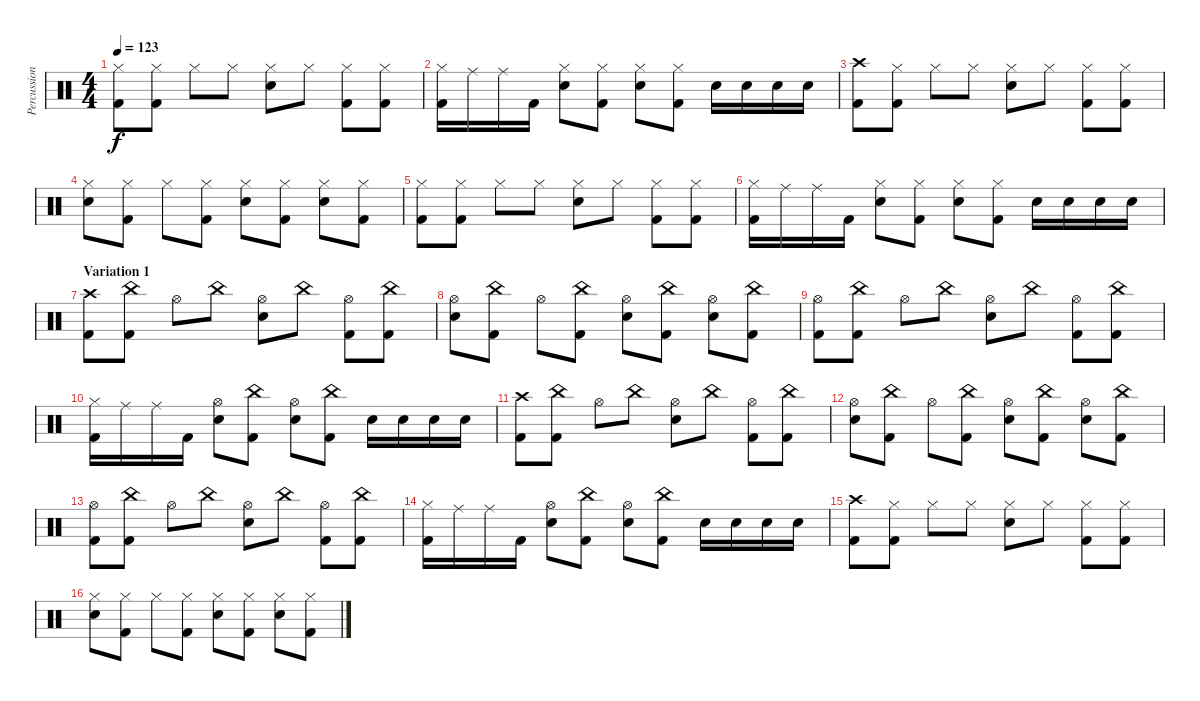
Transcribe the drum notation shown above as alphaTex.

\track ("Percussion" "Percussion") {instrument percussion}
\staff {score}
\articulation defaults
\ts (4 4)
\tempo 123
\clef neutral
\ks c
("Hi-Hat (closed)" "Kick (hit) 2").8{dy f} ("Hi-Hat (closed)" "Kick (hit) 2").8 "Hi-Hat (closed)".8 "Hi-Hat (closed)".8 ("Hi-Hat (closed)" "Electric Snare (hit)").8 "Hi-Hat (closed)".8 ("Hi-Hat (closed)" "Kick (hit) 2").8 ("Hi-Hat (closed)" "Kick (hit) 2").8 |
("Hi-Hat (closed)" "Kick (hit) 2").16 "Ride (middle)".16 "Ride (middle)".16 "Kick (hit) 2".16 ("Hi-Hat (closed)" "Electric Snare (hit)").8 ("Hi-Hat (closed)" "Kick (hit) 2").8 ("Hi-Hat (closed)" "Electric Snare (hit)").8 ("Hi-Hat (closed)" "Kick (hit) 2").8 "Electric Snare (hit)".16 "Electric Snare (hit)".16 "Electric Snare (hit)".16 "Electric Snare (hit)".16 |
("Crash high (hit)" "Kick (hit) 2").8 ("Hi-Hat (closed)" "Kick (hit) 2").8 "Hi-Hat (closed)".8 "Hi-Hat (closed)".8 ("Hi-Hat (closed)" "Electric Snare (hit)").8 "Hi-Hat (closed)".8 ("Hi-Hat (closed)" "Kick (hit) 2").8 ("Hi-Hat (closed)" "Kick (hit) 2").8 |
("Hi-Hat (closed)" "Electric Snare (hit)").8 ("Hi-Hat (closed)" "Kick (hit) 2").8 "Hi-Hat (closed)".8 ("Hi-Hat (closed)" "Kick (hit) 2").8 ("Hi-Hat (closed)" "Electric Snare (hit)").8 ("Hi-Hat (closed)" "Kick (hit) 2").8 ("Hi-Hat (closed)" "Electric Snare (hit)").8 ("Hi-Hat (closed)" "Kick (hit) 2").8 |
("Hi-Hat (closed)" "Kick (hit) 2").8 ("Hi-Hat (closed)" "Kick (hit) 2").8 "Hi-Hat (closed)".8 "Hi-Hat (closed)".8 ("Hi-Hat (closed)" "Electric Snare (hit)").8 "Hi-Hat (closed)".8 ("Hi-Hat (closed)" "Kick (hit) 2").8 ("Hi-Hat (closed)" "Kick (hit) 2").8 |
("Hi-Hat (closed)" "Kick (hit) 2").16 "Ride (middle)".16 "Ride (middle)".16 "Kick (hit) 2".16 ("Hi-Hat (closed)" "Electric Snare (hit)").8 ("Hi-Hat (closed)" "Kick (hit) 2").8 ("Hi-Hat (closed)" "Electric Snare (hit)").8 ("Hi-Hat (closed)" "Kick (hit) 2").8 "Electric Snare (hit)".16 "Electric Snare (hit)".16 "Electric Snare (hit)".16 "Electric Snare (hit)".16 |
\section ("" "Variation 1")
("Crash high (hit)" "Kick (hit) 2").8 ("China (hit)" "Kick (hit) 2").8 "Hi-Hat (open)".8 "China (hit)".8 ("Hi-Hat (open)" "Electric Snare (hit)").8 "China (hit)".8 ("Hi-Hat (open)" "Kick (hit) 2").8 ("China (hit)" "Kick (hit) 2").8 |
("Hi-Hat (open)" "Electric Snare (hit)").8 ("China (hit)" "Kick (hit) 2").8 "Hi-Hat (open)".8 ("China (hit)" "Kick (hit) 2").8 ("Hi-Hat (open)" "Electric Snare (hit)").8 ("China (hit)" "Kick (hit) 2").8 ("Hi-Hat (open)" "Electric Snare (hit)").8 ("China (hit)" "Kick (hit) 2").8 |
("Hi-Hat (open)" "Kick (hit) 2").8 ("China (hit)" "Kick (hit) 2").8 "Hi-Hat (open)".8 "China (hit)".8 ("Hi-Hat (open)" "Electric Snare (hit)").8 "China (hit)".8 ("Hi-Hat (open)" "Kick (hit) 2").8 ("China (hit)" "Kick (hit) 2").8 |
("Hi-Hat (closed)" "Kick (hit) 2").16 "Ride (middle)".16 "Ride (middle)".16 "Kick (hit) 2".16 ("Hi-Hat (open)" "Electric Snare (hit)").8 ("China (hit)" "Kick (hit) 2").8 ("Hi-Hat (open)" "Electric Snare (hit)").8 ("China (hit)" "Kick (hit) 2").8 "Electric Snare (hit)".16 "Electric Snare (hit)".16 "Electric Snare (hit)".16 "Electric Snare (hit)".16 |
("Crash high (hit)" "Kick (hit) 2").8 ("China (hit)" "Kick (hit) 2").8 "Hi-Hat (open)".8 "China (hit)".8 ("Hi-Hat (open)" "Electric Snare (hit)").8 "China (hit)".8 ("Hi-Hat (open)" "Kick (hit) 2").8 ("China (hit)" "Kick (hit) 2").8 |
("Hi-Hat (open)" "Electric Snare (hit)").8 ("China (hit)" "Kick (hit) 2").8 "Hi-Hat (open)".8 ("China (hit)" "Kick (hit) 2").8 ("Hi-Hat (open)" "Electric Snare (hit)").8 ("China (hit)" "Kick (hit) 2").8 ("Hi-Hat (open)" "Electric Snare (hit)").8 ("China (hit)" "Kick (hit) 2").8 |
("Hi-Hat (open)" "Kick (hit) 2").8 ("China (hit)" "Kick (hit) 2").8 "Hi-Hat (open)".8 "China (hit)".8 ("Hi-Hat (open)" "Electric Snare (hit)").8 "China (hit)".8 ("Hi-Hat (open)" "Kick (hit) 2").8 ("China (hit)" "Kick (hit) 2").8 |
("Hi-Hat (closed)" "Kick (hit) 2").16 "Ride (middle)".16 "Ride (middle)".16 "Kick (hit) 2".16 ("Hi-Hat (open)" "Electric Snare (hit)").8 ("China (hit)" "Kick (hit) 2").8 ("Hi-Hat (open)" "Electric Snare (hit)").8 ("China (hit)" "Kick (hit) 2").8 "Electric Snare (hit)".16 "Electric Snare (hit)".16 "Electric Snare (hit)".16 "Electric Snare (hit)".16 |
("Crash high (hit)" "Kick (hit) 2").8 ("Hi-Hat (closed)" "Kick (hit) 2").8 "Hi-Hat (closed)".8 "Hi-Hat (closed)".8 ("Hi-Hat (closed)" "Electric Snare (hit)").8 "Hi-Hat (closed)".8 ("Hi-Hat (closed)" "Kick (hit) 2").8 ("Hi-Hat (closed)" "Kick (hit) 2").8 |
("Hi-Hat (closed)" "Electric Snare (hit)").8 ("Hi-Hat (closed)" "Kick (hit) 2").8 "Hi-Hat (closed)".8 ("Hi-Hat (closed)" "Kick (hit) 2").8 ("Hi-Hat (closed)" "Electric Snare (hit)").8 ("Hi-Hat (closed)" "Kick (hit) 2").8 ("Hi-Hat (closed)" "Electric Snare (hit)").8 ("Hi-Hat (closed)" "Kick (hit) 2").8
